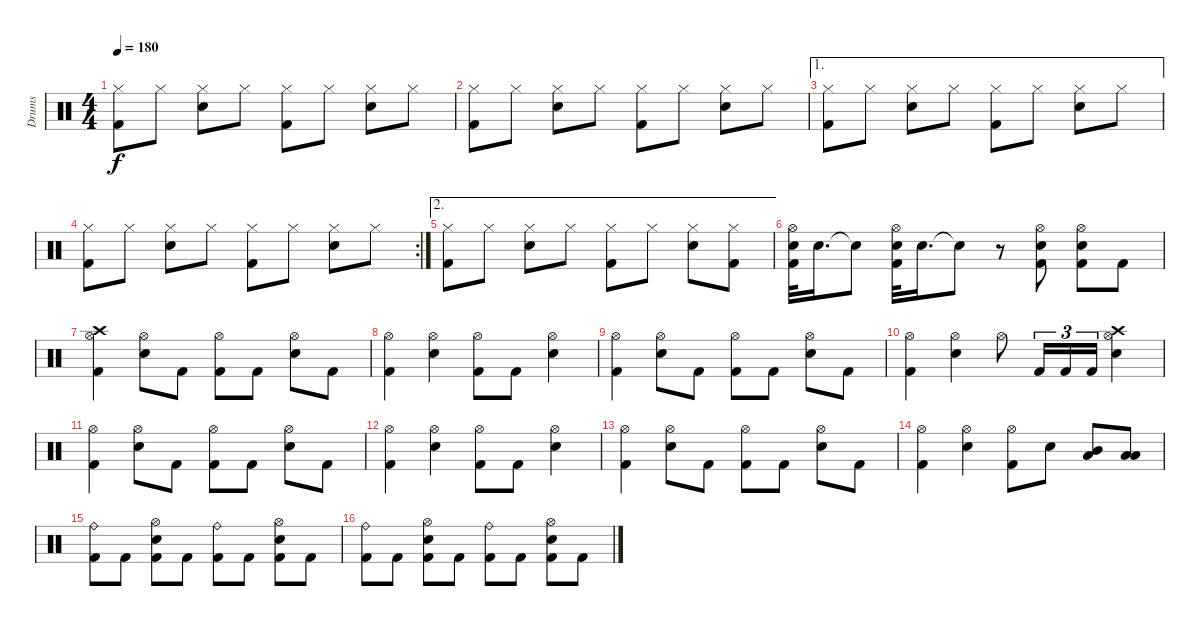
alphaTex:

\track ("Drums" "Drums") {instrument percussion}
\staff {score}
\articulation defaults
\ts (4 4)
\tempo 180
\clef neutral
\ks c
("Kick (hit) 2" "Hi-Hat (closed)").8{dy f} "Hi-Hat (closed)".8 ("Snare (hit) 2" "Hi-Hat (closed)").8 "Hi-Hat (closed)".8 ("Kick (hit) 2" "Hi-Hat (closed)").8 "Hi-Hat (closed)".8 ("Snare (hit) 2" "Hi-Hat (closed)").8 "Hi-Hat (closed)".8 |
("Kick (hit) 2" "Hi-Hat (closed)").8 "Hi-Hat (closed)".8 ("Snare (hit) 2" "Hi-Hat (closed)").8 "Hi-Hat (closed)".8 ("Kick (hit) 2" "Hi-Hat (closed)").8 "Hi-Hat (closed)".8 ("Snare (hit) 2" "Hi-Hat (closed)").8 "Hi-Hat (closed)".8 |
\ae 1
("Kick (hit) 2" "Hi-Hat (closed)").8 "Hi-Hat (closed)".8 ("Snare (hit) 2" "Hi-Hat (closed)").8 "Hi-Hat (closed)".8 ("Kick (hit) 2" "Hi-Hat (closed)").8 "Hi-Hat (closed)".8 ("Snare (hit) 2" "Hi-Hat (closed)").8 "Hi-Hat (closed)".8 |
\rc 2
("Kick (hit) 2" "Hi-Hat (closed)").8 "Hi-Hat (closed)".8 ("Snare (hit) 2" "Hi-Hat (closed)").8 "Hi-Hat (closed)".8 ("Kick (hit) 2" "Hi-Hat (closed)").8 "Hi-Hat (closed)".8 ("Snare (hit) 2" "Hi-Hat (closed)").8 "Hi-Hat (closed)".8 |
\ae 2
("Kick (hit) 2" "Hi-Hat (closed)").8 "Hi-Hat (closed)".8 ("Snare (hit) 2" "Hi-Hat (closed)").8 "Hi-Hat (closed)".8 ("Kick (hit) 2" "Hi-Hat (closed)").8 "Hi-Hat (closed)".8 ("Snare (hit) 2" "Hi-Hat (closed)").8 ("Kick (hit) 2" "Hi-Hat (closed)").8 |
("Hi-Hat (open)" "Snare (hit) 2" "Kick (hit) 2").32 "Snare (hit) 2".16{d} "Snare (hit) 2"{t}.8 ("Hi-Hat (open)" "Snare (hit) 2" "Kick (hit) 2").32 "Snare (hit) 2".16{d} "Snare (hit) 2"{t}.8 r.8 ("Hi-Hat (open)" "Snare (hit) 2" "Kick (hit) 2").8 ("Hi-Hat (open)" "Snare (hit) 2" "Kick (hit) 2").8 "Kick (hit) 2".8 |
("Kick (hit) 2" "Hi-Hat (open)" "Crash high (hit)").4 ("Snare (hit) 2" "Hi-Hat (open)").8 "Kick (hit) 2".8 ("Kick (hit) 2" "Hi-Hat (open)").8 "Kick (hit) 2".8 ("Snare (hit) 2" "Hi-Hat (open)").8 "Kick (hit) 2".8 |
("Kick (hit) 2" "Hi-Hat (open)").4 ("Snare (hit) 2" "Hi-Hat (open)").4 ("Kick (hit) 2" "Hi-Hat (open)").8 "Kick (hit) 2".8 ("Snare (hit) 2" "Hi-Hat (open)").4 |
("Kick (hit) 2" "Hi-Hat (open)").4 ("Snare (hit) 2" "Hi-Hat (open)").8 "Kick (hit) 2".8 ("Kick (hit) 2" "Hi-Hat (open)").8 "Kick (hit) 2".8 ("Snare (hit) 2" "Hi-Hat (open)").8 "Kick (hit) 2".8 |
("Kick (hit) 2" "Hi-Hat (open)").4 ("Snare (hit) 2" "Hi-Hat (open)").4 "Hi-Hat (open)".8 "Kick (hit) 2".16{tu (3 2)} "Kick (hit) 2".16{tu (3 2)} "Kick (hit) 2".16{tu (3 2)} ("Snare (hit) 2" "Hi-Hat (open)" "Crash high (hit)").4 |
("Kick (hit) 2" "Hi-Hat (open)").4 ("Snare (hit) 2" "Hi-Hat (open)").8 "Kick (hit) 2".8 ("Kick (hit) 2" "Hi-Hat (open)").8 "Kick (hit) 2".8 ("Snare (hit) 2" "Hi-Hat (open)").8 "Kick (hit) 2".8 |
("Kick (hit) 2" "Hi-Hat (open)").4 ("Snare (hit) 2" "Hi-Hat (open)").4 ("Kick (hit) 2" "Hi-Hat (open)").8 "Kick (hit) 2".8 ("Snare (hit) 2" "Hi-Hat (open)").4 |
("Kick (hit) 2" "Hi-Hat (open)").4 ("Snare (hit) 2" "Hi-Hat (open)").8 "Kick (hit) 2".8 ("Kick (hit) 2" "Hi-Hat (open)").8 "Kick (hit) 2".8 ("Snare (hit) 2" "Hi-Hat (open)").8 "Kick (hit) 2".8 |
("Kick (hit) 2" "Hi-Hat (open)").4 ("Snare (hit) 2" "Hi-Hat (open)").4 ("Kick (hit) 2" "Hi-Hat (open)").8 "Snare (hit) 2".8 ("Mid Tom (hit)" "Low Tom (hit)").8 ("Low Tom (hit)" "Low Floor Tom (hit)").8 |
("Ride (bell)" "Kick (hit) 2").8 "Kick (hit) 2".8 ("Snare (hit) 2" "Hi-Hat (open)" "Kick (hit) 2").8 "Kick (hit) 2".8 ("Ride (bell)" "Kick (hit) 2").8 "Kick (hit) 2".8 ("Snare (hit) 2" "Hi-Hat (open)" "Kick (hit) 2").8 "Kick (hit) 2".8 |
("Ride (bell)" "Kick (hit) 2").8 "Kick (hit) 2".8 ("Snare (hit) 2" "Hi-Hat (open)" "Kick (hit) 2").8 "Kick (hit) 2".8 ("Ride (bell)" "Kick (hit) 2").8 "Kick (hit) 2".8 ("Snare (hit) 2" "Hi-Hat (open)" "Kick (hit) 2").8 "Kick (hit) 2".8
